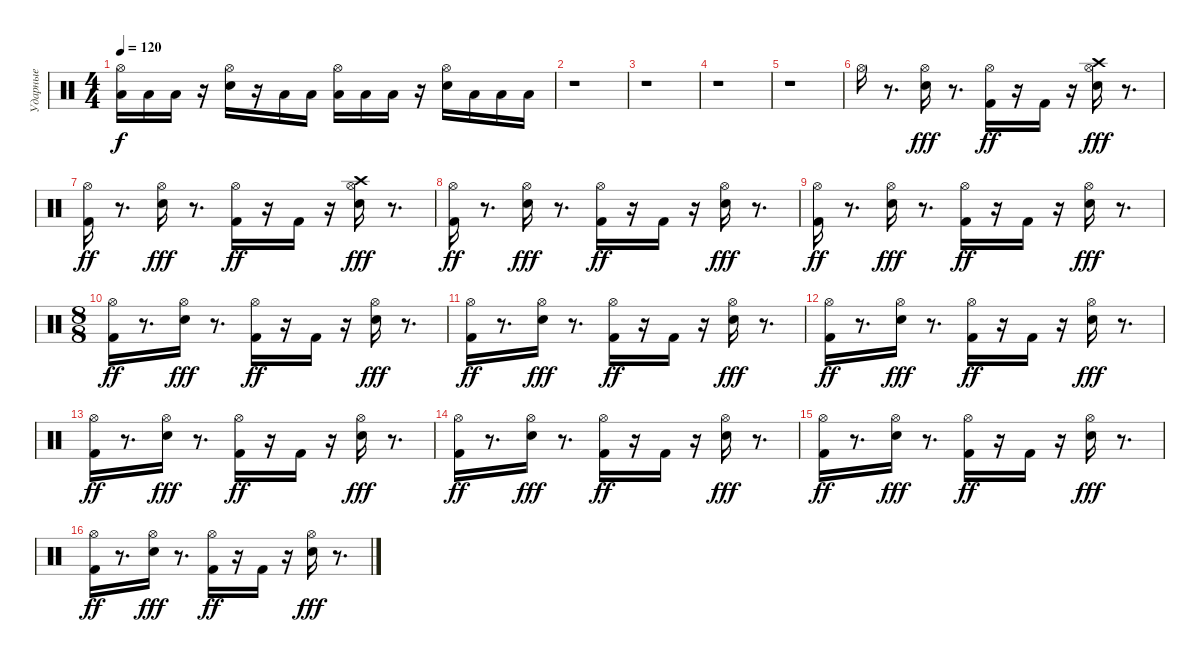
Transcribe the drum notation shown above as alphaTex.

\track ("Ударные" "Ударные") {instrument percussion}
\staff {score}
\articulation defaults
\ts (4 4)
\tempo 120
\clef neutral
\ks c
("Hi-Hat (open)" "Low Tom (hit)").16{dy f} "Low Tom (hit)".16 "Low Tom (hit)".16 r.16 ("Hi-Hat (open)" "Snare (hit) 2").16 r.16 "Low Tom (hit)".16 "Low Tom (hit)".16 ("Hi-Hat (open)" "Low Tom (hit)").16 "Low Tom (hit)".16 "Low Tom (hit)".16 r.16 ("Hi-Hat (open)" "Snare (hit) 2").16 "Low Tom (hit)".16 "Low Tom (hit)".16 "Low Tom (hit)".16 |
r.1 |
r.1 |
r.1 |
r.1 |
"Hi-Hat (open)".16 r.8{d} ("Snare (hit) 2" "Hi-Hat (open)").16{dy fff} r.8{d} ("Kick (hit) 2" "Hi-Hat (open)").16{dy ff} r.16 "Kick (hit) 2".16 r.16 ("Snare (hit) 2" "Hi-Hat (open)" "Crash high (hit)").16{dy fff} r.8{d} |
("Kick (hit) 2" "Hi-Hat (open)").16{dy ff} r.8{d} ("Snare (hit) 2" "Hi-Hat (open)").16{dy fff} r.8{d} ("Kick (hit) 2" "Hi-Hat (open)").16{dy ff} r.16 "Kick (hit) 2".16 r.16 ("Snare (hit) 2" "Hi-Hat (open)" "Crash high (hit)").16{dy fff} r.8{d} |
("Kick (hit) 2" "Hi-Hat (open)").16{dy ff} r.8{d} ("Snare (hit) 2" "Hi-Hat (open)").16{dy fff} r.8{d} ("Kick (hit) 2" "Hi-Hat (open)").16{dy ff} r.16 "Kick (hit) 2".16 r.16 ("Snare (hit) 2" "Hi-Hat (open)").16{dy fff} r.8{d} |
("Kick (hit) 2" "Hi-Hat (open)").16{dy ff} r.8{d} ("Snare (hit) 2" "Hi-Hat (open)").16{dy fff} r.8{d} ("Kick (hit) 2" "Hi-Hat (open)").16{dy ff} r.16 "Kick (hit) 2".16 r.16 ("Snare (hit) 2" "Hi-Hat (open)").16{dy fff} r.8{d} |
\ts (8 8)
("Kick (hit) 2" "Hi-Hat (open)").16{dy ff} r.8{d} ("Snare (hit) 2" "Hi-Hat (open)").16{dy fff} r.8{d} ("Kick (hit) 2" "Hi-Hat (open)").16{dy ff} r.16 "Kick (hit) 2".16 r.16 ("Snare (hit) 2" "Hi-Hat (open)").16{dy fff} r.8{d} |
("Kick (hit) 2" "Hi-Hat (open)").16{dy ff} r.8{d} ("Snare (hit) 2" "Hi-Hat (open)").16{dy fff} r.8{d} ("Kick (hit) 2" "Hi-Hat (open)").16{dy ff} r.16 "Kick (hit) 2".16 r.16 ("Snare (hit) 2" "Hi-Hat (open)").16{dy fff} r.8{d} |
("Kick (hit) 2" "Hi-Hat (open)").16{dy ff} r.8{d} ("Snare (hit) 2" "Hi-Hat (open)").16{dy fff} r.8{d} ("Kick (hit) 2" "Hi-Hat (open)").16{dy ff} r.16 "Kick (hit) 2".16 r.16 ("Snare (hit) 2" "Hi-Hat (open)").16{dy fff} r.8{d} |
("Kick (hit) 2" "Hi-Hat (open)").16{dy ff} r.8{d} ("Snare (hit) 2" "Hi-Hat (open)").16{dy fff} r.8{d} ("Kick (hit) 2" "Hi-Hat (open)").16{dy ff} r.16 "Kick (hit) 2".16 r.16 ("Snare (hit) 2" "Hi-Hat (open)").16{dy fff} r.8{d} |
("Kick (hit) 2" "Hi-Hat (open)").16{dy ff} r.8{d} ("Snare (hit) 2" "Hi-Hat (open)").16{dy fff} r.8{d} ("Kick (hit) 2" "Hi-Hat (open)").16{dy ff} r.16 "Kick (hit) 2".16 r.16 ("Snare (hit) 2" "Hi-Hat (open)").16{dy fff} r.8{d} |
("Kick (hit) 2" "Hi-Hat (open)").16{dy ff} r.8{d} ("Snare (hit) 2" "Hi-Hat (open)").16{dy fff} r.8{d} ("Kick (hit) 2" "Hi-Hat (open)").16{dy ff} r.16 "Kick (hit) 2".16 r.16 ("Snare (hit) 2" "Hi-Hat (open)").16{dy fff} r.8{d} |
("Kick (hit) 2" "Hi-Hat (open)").16{dy ff} r.8{d} ("Snare (hit) 2" "Hi-Hat (open)").16{dy fff} r.8{d} ("Kick (hit) 2" "Hi-Hat (open)").16{dy ff} r.16 "Kick (hit) 2".16 r.16 ("Snare (hit) 2" "Hi-Hat (open)").16{dy fff} r.8{d}
